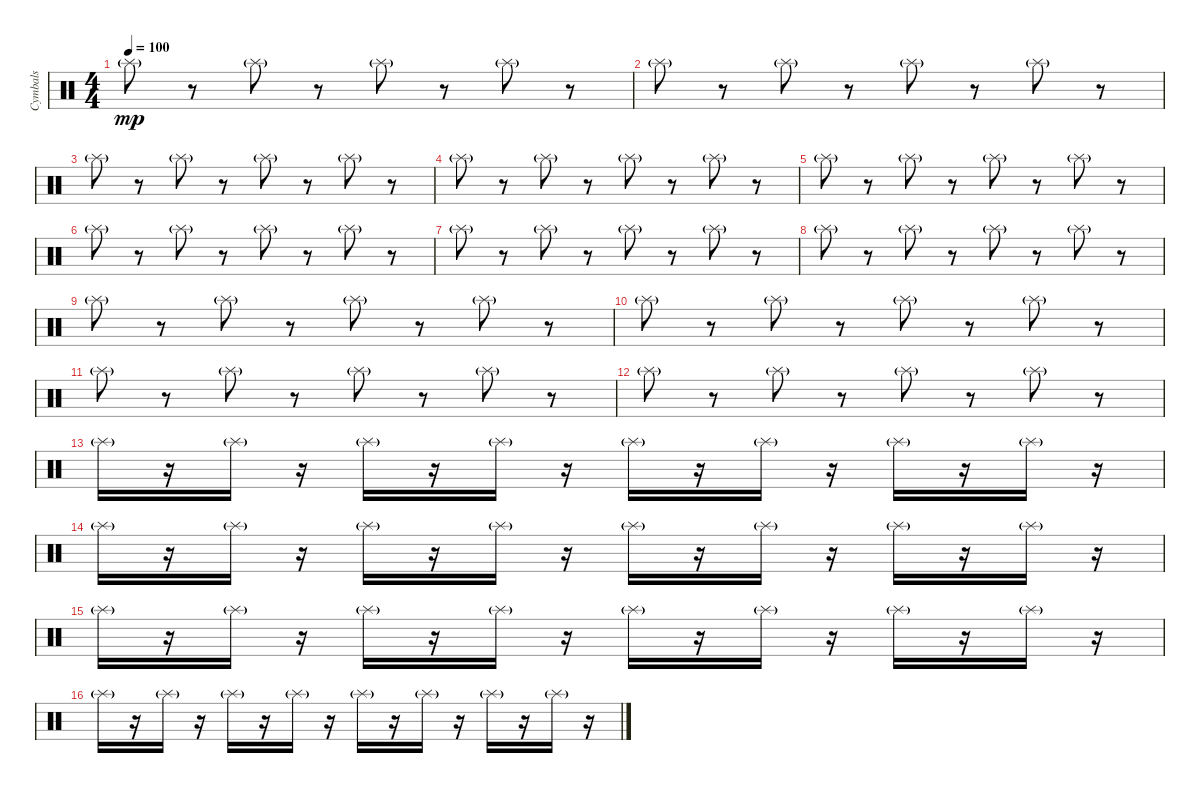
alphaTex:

\track ("Cymbals" "Cymbals") {instrument percussion}
\staff {score}
\articulation defaults
\ts (4 4)
\tempo 100
\clef neutral
\ks c "Splash (hit)"{g}.8{dy mp volume 3}
r.8 "Splash (hit)"{g}.8 r.8 "Splash (hit)"{g}.8 r.8 "Splash (hit)"{g}.8 r.8 |
"Splash (hit)"{g}.8 r.8 "Splash (hit)"{g}.8 r.8 "Splash (hit)"{g}.8 r.8 "Splash (hit)"{g}.8 r.8 |
"Splash (hit)"{g}.8 r.8 "Splash (hit)"{g}.8 r.8 "Splash (hit)"{g}.8 r.8 "Splash (hit)"{g}.8 r.8 |
"Splash (hit)"{g}.8 r.8 "Splash (hit)"{g}.8 r.8 "Splash (hit)"{g}.8 r.8 "Splash (hit)"{g}.8 r.8 |
"Splash (hit)"{g}.8 r.8 "Splash (hit)"{g}.8 r.8 "Splash (hit)"{g}.8 r.8 "Splash (hit)"{g}.8 r.8 |
"Splash (hit)"{g}.8 r.8 "Splash (hit)"{g}.8 r.8 "Splash (hit)"{g}.8 r.8 "Splash (hit)"{g}.8 r.8 |
"Splash (hit)"{g}.8 r.8 "Splash (hit)"{g}.8 r.8 "Splash (hit)"{g}.8 r.8 "Splash (hit)"{g}.8 r.8 |
"Splash (hit)"{g}.8 r.8 "Splash (hit)"{g}.8 r.8 "Splash (hit)"{g}.8 r.8 "Splash (hit)"{g}.8 r.8 |
"Splash (hit)"{g}.8 r.8 "Splash (hit)"{g}.8 r.8 "Splash (hit)"{g}.8 r.8 "Splash (hit)"{g}.8 r.8 |
"Splash (hit)"{g}.8 r.8 "Splash (hit)"{g}.8 r.8 "Splash (hit)"{g}.8 r.8 "Splash (hit)"{g}.8 r.8 |
"Splash (hit)"{g}.8 r.8 "Splash (hit)"{g}.8 r.8 "Splash (hit)"{g}.8 r.8 "Splash (hit)"{g}.8 r.8 |
"Splash (hit)"{g}.8 r.8 "Splash (hit)"{g}.8 r.8 "Splash (hit)"{g}.8 r.8 "Splash (hit)"{g}.8 r.8 |
"Splash (hit)"{g}.16 r.16 "Splash (hit)"{g}.16 r.16 "Splash (hit)"{g}.16 r.16 "Splash (hit)"{g}.16 r.16 "Splash (hit)"{g}.16 r.16 "Splash (hit)"{g}.16 r.16 "Splash (hit)"{g}.16 r.16 "Splash (hit)"{g}.16 r.16 |
"Splash (hit)"{g}.16 r.16 "Splash (hit)"{g}.16 r.16 "Splash (hit)"{g}.16 r.16 "Splash (hit)"{g}.16 r.16 "Splash (hit)"{g}.16 r.16 "Splash (hit)"{g}.16 r.16 "Splash (hit)"{g}.16 r.16 "Splash (hit)"{g}.16 r.16 |
"Splash (hit)"{g}.16 r.16 "Splash (hit)"{g}.16 r.16 "Splash (hit)"{g}.16 r.16 "Splash (hit)"{g}.16 r.16 "Splash (hit)"{g}.16 r.16 "Splash (hit)"{g}.16 r.16 "Splash (hit)"{g}.16 r.16 "Splash (hit)"{g}.16 r.16 |
"Splash (hit)"{g}.16 r.16 "Splash (hit)"{g}.16 r.16 "Splash (hit)"{g}.16 r.16 "Splash (hit)"{g}.16 r.16 "Splash (hit)"{g}.16 r.16 "Splash (hit)"{g}.16 r.16 "Splash (hit)"{g}.16 r.16 "Splash (hit)"{g}.16 r.16
